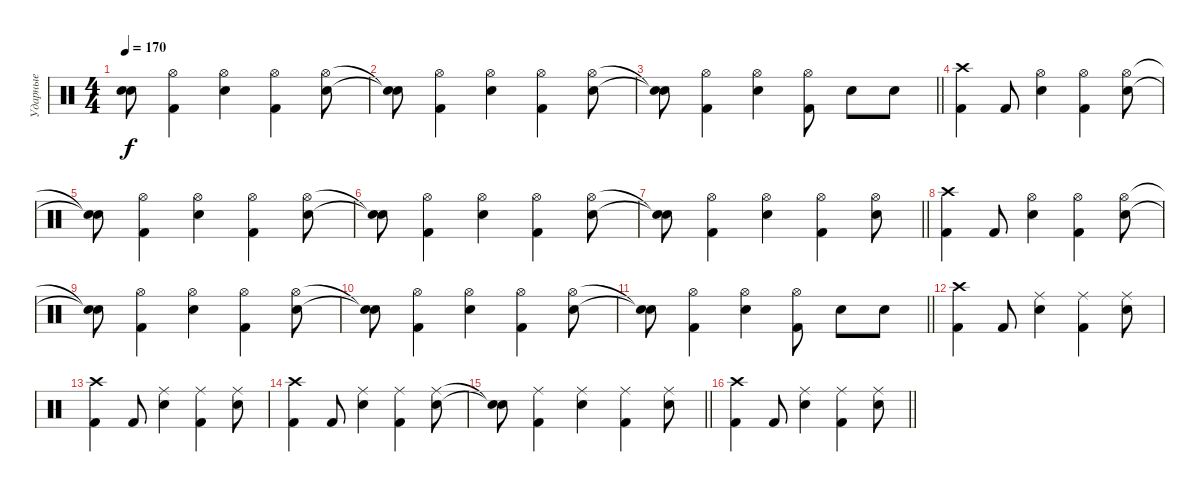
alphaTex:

\track ("Ударные" "Ударные") {instrument percussion}
\staff {score}
\articulation defaults
\ts (4 4)
\tempo 170
\clef neutral
\ks c
("Snare (hit)"{t} "Snare (hit)"{t}).8{dy f} ("Hi-Hat (open)" "Kick (hit) 2").4 ("Hi-Hat (open)" "Snare (hit) 2").4 ("Hi-Hat (open)" "Kick (hit) 2").4 ("Hi-Hat (open)" "Snare (hit) 2").8 |
("Snare (hit)"{t} "Snare (hit)"{t}).8 ("Hi-Hat (open)" "Kick (hit) 2").4 ("Hi-Hat (open)" "Snare (hit) 2").4 ("Hi-Hat (open)" "Kick (hit) 2").4 ("Hi-Hat (open)" "Snare (hit) 2").8 |
\barLineRight lightlight
("Snare (hit)"{t} "Snare (hit)"{t}).8 ("Hi-Hat (open)" "Kick (hit) 2").4 ("Hi-Hat (open)" "Snare (hit) 2").4 ("Kick (hit) 2" "Hi-Hat (open)").8 "Snare (hit) 2".8 "Snare (hit) 2".8 |
("Crash high (hit)" "Kick (hit) 2").4 "Kick (hit) 2".8 ("Hi-Hat (open)" "Snare (hit) 2").4 ("Hi-Hat (open)" "Kick (hit) 2").4 ("Hi-Hat (open)" "Snare (hit) 2").8 |
("Snare (hit)"{t} "Snare (hit)"{t}).8 ("Hi-Hat (open)" "Kick (hit) 2").4 ("Hi-Hat (open)" "Snare (hit) 2").4 ("Hi-Hat (open)" "Kick (hit) 2").4 ("Hi-Hat (open)" "Snare (hit) 2").8 |
("Snare (hit)"{t} "Snare (hit)"{t}).8 ("Hi-Hat (open)" "Kick (hit) 2").4 ("Hi-Hat (open)" "Snare (hit) 2").4 ("Hi-Hat (open)" "Kick (hit) 2").4 ("Hi-Hat (open)" "Snare (hit) 2").8 |
\barLineRight lightlight
("Snare (hit)"{t} "Snare (hit)"{t}).8 ("Hi-Hat (open)" "Kick (hit) 2").4 ("Hi-Hat (open)" "Snare (hit) 2").4 ("Hi-Hat (open)" "Kick (hit) 2").4 ("Hi-Hat (open)" "Snare (hit) 2").8 |
("Crash high (hit)" "Kick (hit) 2").4 "Kick (hit) 2".8 ("Hi-Hat (open)" "Snare (hit) 2").4 ("Hi-Hat (open)" "Kick (hit) 2").4 ("Hi-Hat (open)" "Snare (hit) 2").8 |
("Snare (hit)"{t} "Snare (hit)"{t}).8 ("Hi-Hat (open)" "Kick (hit) 2").4 ("Hi-Hat (open)" "Snare (hit) 2").4 ("Hi-Hat (open)" "Kick (hit) 2").4 ("Hi-Hat (open)" "Snare (hit) 2").8 |
("Snare (hit)"{t} "Snare (hit)"{t}).8 ("Hi-Hat (open)" "Kick (hit) 2").4 ("Hi-Hat (open)" "Snare (hit) 2").4 ("Hi-Hat (open)" "Kick (hit) 2").4 ("Hi-Hat (open)" "Snare (hit) 2").8 |
\barLineRight lightlight
("Snare (hit)"{t} "Snare (hit)"{t}).8 ("Hi-Hat (open)" "Kick (hit) 2").4 ("Hi-Hat (open)" "Snare (hit) 2").4 ("Kick (hit) 2" "Hi-Hat (open)").8 "Snare (hit) 2".8 "Snare (hit) 2".8 |
("Crash high (hit)" "Kick (hit) 2").4 "Kick (hit) 2".8 ("Ride (middle)" "Snare (hit) 2").4 ("Ride (middle)" "Kick (hit) 2").4 ("Ride (middle)" "Snare (hit) 2").8 |
("Crash high (hit)" "Kick (hit) 2").4 "Kick (hit) 2".8 ("Ride (middle)" "Snare (hit) 2").4 ("Ride (middle)" "Kick (hit) 2").4 ("Ride (middle)" "Snare (hit) 2").8 |
("Crash high (hit)" "Kick (hit) 2").4 "Kick (hit) 2".8 ("Ride (middle)" "Snare (hit) 2").4 ("Ride (middle)" "Kick (hit) 2").4 ("Ride (middle)" "Snare (hit) 2").8 |
\barLineRight lightlight
("Snare (hit)"{t} "Snare (hit)"{t}).8 ("Ride (middle)" "Kick (hit) 2").4 ("Ride (middle)" "Snare (hit) 2").4 ("Ride (middle)" "Kick (hit) 2").4 ("Ride (middle)" "Snare (hit) 2").8 |
\barLineRight lightlight
("Crash high (hit)" "Kick (hit) 2").4 "Kick (hit) 2".8 ("Ride (middle)" "Snare (hit) 2").4 ("Ride (middle)" "Kick (hit) 2").4 ("Ride (middle)" "Snare (hit) 2").8
